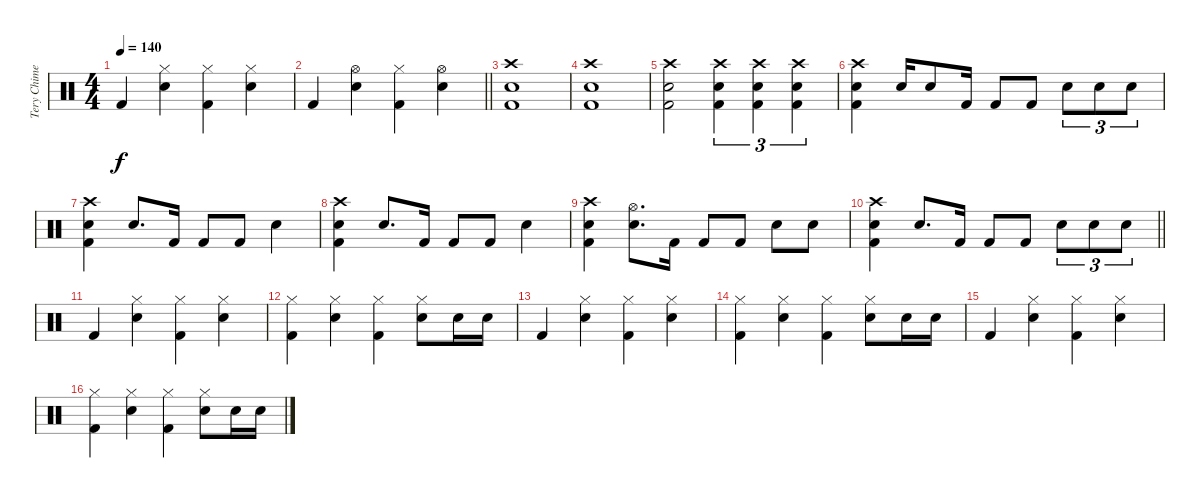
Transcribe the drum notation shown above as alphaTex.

\track ("Tery Chimes" "Tery Chime") {instrument percussion}
\staff {score}
\articulation defaults
\ts (4 4)
\tempo 140
\clef neutral
\ks c "Kick (hit) 2".4{dy f}
("Hi-Hat (closed)" "Electric Snare (hit)").4 ("Hi-Hat (closed)" "Kick (hit) 2").4 ("Hi-Hat (closed)" "Electric Snare (hit)").4 |
\barLineRight lightlight "Kick (hit) 2".4
("Hi-Hat (open)" "Electric Snare (hit)").4 ("Hi-Hat (closed)" "Kick (hit) 2").4 ("Hi-Hat (open)" "Electric Snare (hit)").4 |
("Crash high (hit)" "Electric Snare (hit)" "Kick (hit) 2").1 |
("Crash high (hit)" "Electric Snare (hit)" "Kick (hit) 2").1 |
("Crash high (hit)" "Electric Snare (hit)" "Kick (hit) 2").2 ("Crash high (hit)" "Electric Snare (hit)" "Kick (hit) 2").4{tu (3 2)} ("Crash high (hit)" "Electric Snare (hit)" "Kick (hit) 2").4{tu (3 2)} ("Crash high (hit)" "Electric Snare (hit)" "Kick (hit) 2").4{tu (3 2)} |
("Crash high (hit)" "Electric Snare (hit)" "Kick (hit) 2").4 "Electric Snare (hit)".16 "Electric Snare (hit)".8 "Kick (hit) 2".16 "Kick (hit) 2".8 "Kick (hit) 2".8 "Electric Snare (hit)".8{tu (3 2)} "Electric Snare (hit)".8{tu (3 2)} "Electric Snare (hit)".8{tu (3 2)} |
("Crash high (hit)" "Electric Snare (hit)" "Kick (hit) 2").4 "Electric Snare (hit)".8{d} "Kick (hit) 2".16 "Kick (hit) 2".8 "Kick (hit) 2".8 "Electric Snare (hit)".4 |
("Crash high (hit)" "Electric Snare (hit)" "Kick (hit) 2").4 "Electric Snare (hit)".8{d} "Kick (hit) 2".16 "Kick (hit) 2".8 "Kick (hit) 2".8 "Electric Snare (hit)".4 |
("Crash high (hit)" "Electric Snare (hit)" "Kick (hit) 2").4 ("Hi-Hat (open)" "Electric Snare (hit)").8{d} "Kick (hit) 2".16 "Kick (hit) 2".8 "Kick (hit) 2".8 "Electric Snare (hit)".8 "Electric Snare (hit)".8 |
\barLineRight lightlight
("Crash high (hit)" "Electric Snare (hit)" "Kick (hit) 2").4 "Electric Snare (hit)".8{d} "Kick (hit) 2".16 "Kick (hit) 2".8 "Kick (hit) 2".8 "Electric Snare (hit)".8{tu (3 2)} "Electric Snare (hit)".8{tu (3 2)} "Electric Snare (hit)".8{tu (3 2)} |
"Kick (hit) 2".4 ("Hi-Hat (closed)" "Electric Snare (hit)").4 ("Hi-Hat (closed)" "Kick (hit) 2").4 ("Hi-Hat (closed)" "Electric Snare (hit)").4 |
("Hi-Hat (closed)" "Kick (hit) 2").4 ("Hi-Hat (closed)" "Electric Snare (hit)").4 ("Hi-Hat (closed)" "Kick (hit) 2").4 ("Hi-Hat (closed)" "Electric Snare (hit)").8 "Electric Snare (hit)".16 "Electric Snare (hit)".16 |
"Kick (hit) 2".4 ("Hi-Hat (closed)" "Electric Snare (hit)").4 ("Hi-Hat (closed)" "Kick (hit) 2").4 ("Hi-Hat (closed)" "Electric Snare (hit)").4 |
("Hi-Hat (closed)" "Kick (hit) 2").4 ("Hi-Hat (closed)" "Electric Snare (hit)").4 ("Hi-Hat (closed)" "Kick (hit) 2").4 ("Hi-Hat (closed)" "Electric Snare (hit)").8 "Electric Snare (hit)".16 "Electric Snare (hit)".16 |
"Kick (hit) 2".4 ("Hi-Hat (closed)" "Electric Snare (hit)").4 ("Hi-Hat (closed)" "Kick (hit) 2").4 ("Hi-Hat (closed)" "Electric Snare (hit)").4 |
("Hi-Hat (closed)" "Kick (hit) 2").4 ("Hi-Hat (closed)" "Electric Snare (hit)").4 ("Hi-Hat (closed)" "Kick (hit) 2").4 ("Hi-Hat (closed)" "Electric Snare (hit)").8 "Electric Snare (hit)".16 "Electric Snare (hit)".16
